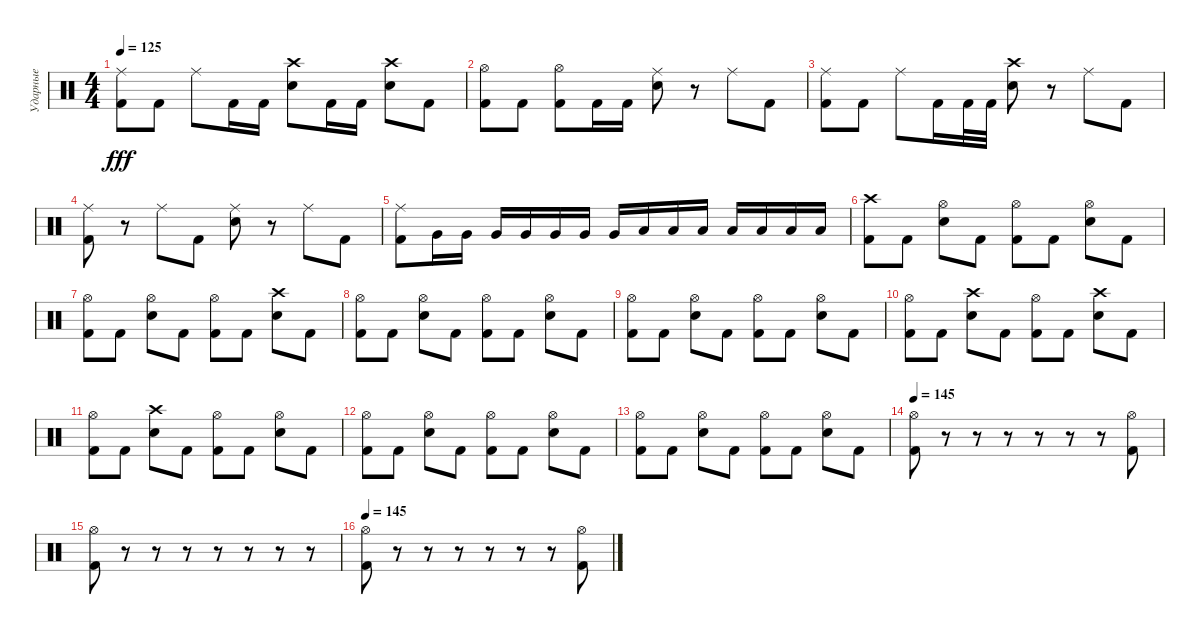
\track ("Ударные" "Ударные") {instrument percussion}
\staff {score}
\articulation defaults
\ts (4 4)
\tempo 125
\clef neutral
\ks c
("Ride (middle)" "Kick (hit) 2").8{dy fff} "Kick (hit) 2".8 "Ride (middle)".8 "Kick (hit) 2".16 "Kick (hit) 2".16 ("Crash high (hit)" "Electric Snare (hit)").8 "Kick (hit) 2".16 "Kick (hit) 2".16 ("Crash high (hit)" "Electric Snare (hit)").8 "Kick (hit) 2".8 |
("Hi-Hat (open)" "Kick (hit) 2").8 "Kick (hit) 2".8 ("Hi-Hat (open)" "Kick (hit) 2").8 "Kick (hit) 2".16 "Kick (hit) 2".16 ("Ride (middle)" "Electric Snare (hit)").8 r.8 "Ride (middle)".8 "Kick (hit) 2".8 |
("Ride (middle)" "Kick (hit) 2").8 "Kick (hit) 2".8 "Ride (middle)".8 "Kick (hit) 2".16 "Kick (hit) 2".32 "Kick (hit) 2".32 ("Crash high (hit)" "Electric Snare (hit)").8 r.8 "Ride (middle)".8 "Kick (hit) 2".8 |
("Ride (middle)" "Kick (hit) 2").8 r.8 "Ride (middle)".8 "Kick (hit) 2".8 ("Ride (middle)" "Electric Snare (hit)").8 r.8 "Ride (middle)".8 "Kick (hit) 2".8 |
("Ride (middle)" "Kick (hit) 2").8 "Very Low Tom (hit)".16 "Very Low Tom (hit)".16 "Very Low Tom (hit)".16 "Very Low Tom (hit)".16 "Very Low Tom (hit)".16 "Very Low Tom (hit)".16 "Very Low Tom (hit)".16 "Low Floor Tom (hit)".16 "Low Floor Tom (hit)".16 "Low Floor Tom (hit)".16 "Low Floor Tom (hit)".16 "Low Floor Tom (hit)".16 "Low Floor Tom (hit)".16 "Low Floor Tom (hit)".16 |
("Crash high (hit)" "Kick (hit) 2").8 "Kick (hit) 2".8 ("Hi-Hat (open)" "Electric Snare (hit)").8 "Kick (hit) 2".8 ("Hi-Hat (open)" "Kick (hit) 2").8 "Kick (hit) 2".8 ("Hi-Hat (open)" "Electric Snare (hit)").8 "Kick (hit) 2".8 |
("Hi-Hat (open)" "Kick (hit) 2").8 "Kick (hit) 2".8 ("Hi-Hat (open)" "Electric Snare (hit)").8 "Kick (hit) 2".8 ("Hi-Hat (open)" "Kick (hit) 2").8 "Kick (hit) 2".8 ("Crash high (hit)" "Electric Snare (hit)").8 "Kick (hit) 2".8 |
("Hi-Hat (open)" "Kick (hit) 2").8 "Kick (hit) 2".8 ("Hi-Hat (open)" "Electric Snare (hit)").8 "Kick (hit) 2".8 ("Hi-Hat (open)" "Kick (hit) 2").8 "Kick (hit) 2".8 ("Hi-Hat (open)" "Electric Snare (hit)").8 "Kick (hit) 2".8 |
("Hi-Hat (open)" "Kick (hit) 2").8 "Kick (hit) 2".8 ("Hi-Hat (open)" "Electric Snare (hit)").8 "Kick (hit) 2".8 ("Hi-Hat (open)" "Kick (hit) 2").8 "Kick (hit) 2".8 ("Hi-Hat (open)" "Electric Snare (hit)").8 "Kick (hit) 2".8 |
("Hi-Hat (open)" "Kick (hit) 2").8 "Kick (hit) 2".8 ("Crash high (hit)" "Electric Snare (hit)").8 "Kick (hit) 2".8 ("Hi-Hat (open)" "Kick (hit) 2").8 "Kick (hit) 2".8 ("Crash high (hit)" "Electric Snare (hit)").8 "Kick (hit) 2".8 |
("Hi-Hat (open)" "Kick (hit) 2").8 "Kick (hit) 2".8 ("Crash high (hit)" "Electric Snare (hit)").8 "Kick (hit) 2".8 ("Hi-Hat (open)" "Kick (hit) 2").8 "Kick (hit) 2".8 ("Hi-Hat (open)" "Electric Snare (hit)").8 "Kick (hit) 2".8 |
("Hi-Hat (open)" "Kick (hit) 2").8 "Kick (hit) 2".8 ("Hi-Hat (open)" "Electric Snare (hit)").8 "Kick (hit) 2".8 ("Hi-Hat (open)" "Kick (hit) 2").8 "Kick (hit) 2".8 ("Hi-Hat (open)" "Electric Snare (hit)").8 "Kick (hit) 2".8 |
("Hi-Hat (open)" "Kick (hit) 2").8 "Kick (hit) 2".8 ("Hi-Hat (open)" "Electric Snare (hit)").8 "Kick (hit) 2".8 ("Hi-Hat (open)" "Kick (hit) 2").8 "Kick (hit) 2".8 ("Hi-Hat (open)" "Electric Snare (hit)").8 "Kick (hit) 2".8 |
\tempo 145
("Hi-Hat (open)" "Kick (hit) 2").8 r.8{volume 0} r.8 r.8 r.8 r.8 r.8 ("Hi-Hat (open)" "Kick (hit) 2").8{volume 16} |
("Hi-Hat (open)" "Kick (hit) 2").8 r.8{volume 0} r.8 r.8 r.8 r.8 r.8 r.8 |
\tempo 145
("Hi-Hat (open)" "Kick (hit) 2").8{volume 16} r.8{volume 0} r.8 r.8 r.8 r.8 r.8 ("Hi-Hat (open)" "Kick (hit) 2").8{volume 16}
